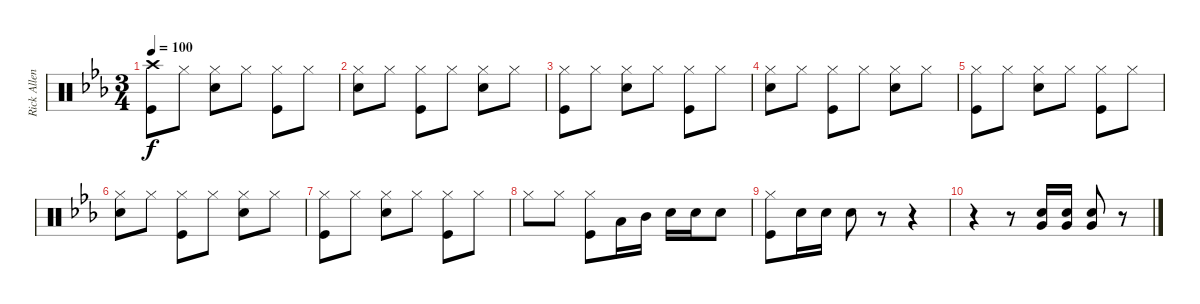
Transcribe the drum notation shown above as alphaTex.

\track ("Rick Allen" "Rick Allen") {instrument percussion}
\staff {score}
\articulation defaults
\ts (3 4)
\tempo 100
\clef neutral
\ks cminor
("Crash high (hit)" "Kick (hit)").8{dy f} "Hi-Hat (closed)".8 ("Hi-Hat (closed)" "Snare (hit) 2").8 "Hi-Hat (closed)".8 ("Hi-Hat (closed)" "Kick (hit)").8 "Hi-Hat (closed)".8 |
("Hi-Hat (closed)" "Snare (hit) 2").8 "Hi-Hat (closed)".8 ("Hi-Hat (closed)" "Kick (hit)").8 "Hi-Hat (closed)".8 ("Hi-Hat (closed)" "Snare (hit) 2").8 "Hi-Hat (closed)".8 |
("Hi-Hat (closed)" "Kick (hit)").8 "Hi-Hat (closed)".8 ("Hi-Hat (closed)" "Snare (hit) 2").8 "Hi-Hat (closed)".8 ("Hi-Hat (closed)" "Kick (hit)").8 "Hi-Hat (closed)".8 |
("Hi-Hat (closed)" "Snare (hit) 2").8 "Hi-Hat (closed)".8 ("Hi-Hat (closed)" "Kick (hit)").8 "Hi-Hat (closed)".8 ("Hi-Hat (closed)" "Snare (hit) 2").8 "Hi-Hat (closed)".8 |
("Hi-Hat (closed)" "Kick (hit)").8 "Hi-Hat (closed)".8 ("Hi-Hat (closed)" "Snare (hit) 2").8 "Hi-Hat (closed)".8 ("Hi-Hat (closed)" "Kick (hit)").8 "Hi-Hat (closed)".8 |
("Hi-Hat (closed)" "Snare (hit) 2").8 "Hi-Hat (closed)".8 ("Hi-Hat (closed)" "Kick (hit)").8 "Hi-Hat (closed)".8 ("Hi-Hat (closed)" "Snare (hit) 2").8 "Hi-Hat (closed)".8 |
("Hi-Hat (closed)" "Kick (hit)").8 "Hi-Hat (closed)".8 ("Hi-Hat (closed)" "Snare (hit) 2").8 "Hi-Hat (closed)".8 ("Hi-Hat (closed)" "Kick (hit)").8 "Hi-Hat (closed)".8 |
"Hi-Hat (closed)".8 "Hi-Hat (closed)".8 ("Hi-Hat (closed)" "Kick (hit)").8 "Low Tom (hit)".16 "Mid Tom (hit)".16 "Snare (hit) 2".16 "Snare (hit) 2".16 "Snare (hit) 2".8 |
("Hi-Hat (closed)" "Kick (hit)").8 "Snare (hit) 2".16 "Snare (hit) 2".16 "Snare (hit) 2".8 r.8 r.4 |
r.4 r.8 ("Snare (hit) 2" "Very Low Tom (hit)").16 ("Snare (hit) 2" "Very Low Tom (hit)").16 ("Snare (hit) 2" "Very Low Tom (hit)").8 r.8
